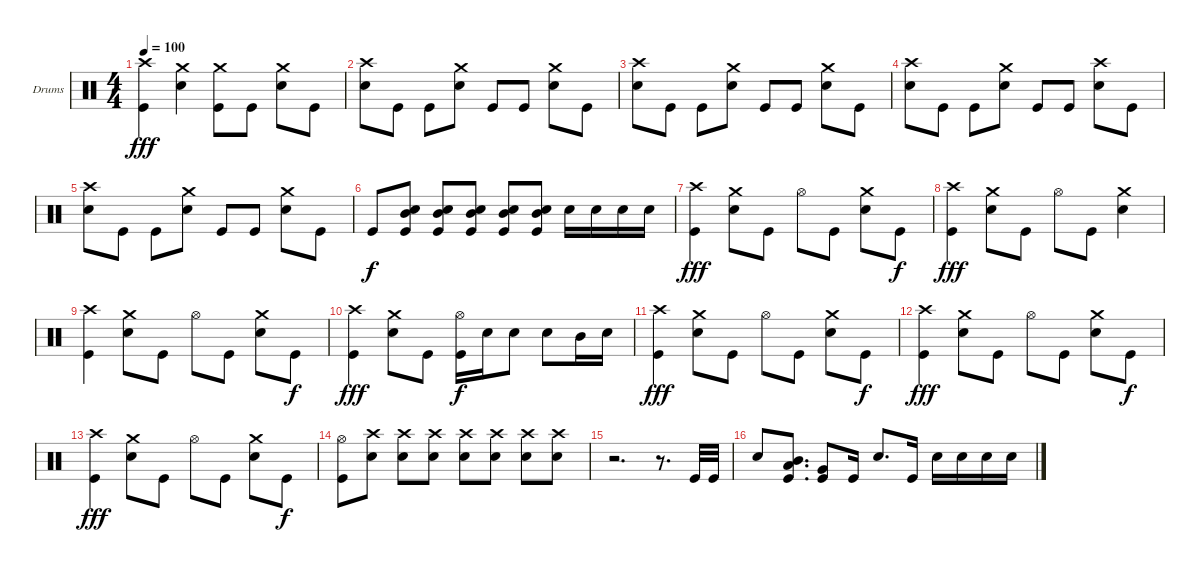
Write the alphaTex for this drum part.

\defaultSystemsLayout 4
\bracketExtendMode groupsimilarinstruments
\firstSystemTrackNameOrientation horizontal
\otherSystemsTrackNameOrientation horizontal
\track ("Drumkit" "Drums") {instrument percussion}
\staff {score}
\articulation defaults
\ts (4 4)
\tempo 100
\clef neutral
\scale
0.333333
\ks c
("Crash high (hit)" "Kick (hit)").4{dy fff} ("Crash medium (hit)" "Snare (hit) 2").4 ("Crash medium (hit)" "Kick (hit)").8 "Kick (hit)".8 ("Crash medium (hit)" "Snare (hit) 2").8 "Kick (hit)".8 |
\scale
0.333333 ("Crash high (hit)" "Snare (hit) 2").8 "Kick (hit)".8 "Kick (hit)".8 ("Crash medium (hit)" "Snare (hit) 2").8 "Kick (hit)".8 "Kick (hit)".8 ("Crash medium (hit)" "Snare (hit) 2").8 "Kick (hit)".8 |
\scale
0.333333 ("Crash high (hit)" "Snare (hit) 2").8 "Kick (hit)".8 "Kick (hit)".8 ("Crash medium (hit)" "Snare (hit) 2").8 "Kick (hit)".8 "Kick (hit)".8 ("Crash medium (hit)" "Snare (hit) 2").8 "Kick (hit)".8 |
("Crash high (hit)" "Snare (hit) 2").8 "Kick (hit)".8 "Kick (hit)".8 ("Crash medium (hit)" "Snare (hit) 2").8 "Kick (hit)".8 "Kick (hit)".8 ("Crash high (hit)" "Snare (hit) 2").8 "Kick (hit)".8 |
("Crash high (hit)" "Snare (hit) 2").8 "Kick (hit)".8 "Kick (hit)".8 ("Crash medium (hit)" "Snare (hit) 2").8 "Kick (hit)".8 "Kick (hit)".8 ("Crash medium (hit)" "Snare (hit) 2").8 "Kick (hit)".8 |
"Kick (hit)".8{dy f} ("Mid Tom (hit)" "Snare (hit) 2" "Kick (hit)").8 ("Mid Tom (hit)" "Snare (hit) 2" "Kick (hit)").8 ("Mid Tom (hit)" "Snare (hit) 2" "Kick (hit)").8 ("Mid Tom (hit)" "Snare (hit) 2" "Kick (hit)").8 ("Mid Tom (hit)" "Snare (hit) 2" "Kick (hit)").8 "Snare (hit) 2".16 "Snare (hit) 2".16 "Snare (hit) 2".16 "Snare (hit) 2".16 |
("Crash high (hit)" "Kick (hit)").4{dy fff} ("Crash medium (hit)" "Snare (hit) 2").8 "Kick (hit)".8 "Hi-Hat (open)".8 "Kick (hit)".8 ("Crash medium (hit)" "Snare (hit) 2").8 "Kick (hit)".8{dy f} |
("Crash high (hit)" "Kick (hit)").4{dy fff} ("Crash medium (hit)" "Snare (hit) 2").8 "Kick (hit)".8 "Hi-Hat (open)".8 "Kick (hit)".8 ("Crash medium (hit)" "Snare (hit) 2").4 |
("Crash high (hit)" "Kick (hit)").4 ("Crash medium (hit)" "Snare (hit) 2").8 "Kick (hit)".8 "Hi-Hat (open)".8 "Kick (hit)".8 ("Crash medium (hit)" "Snare (hit) 2").8 "Kick (hit)".8{dy f} |
("Crash high (hit)" "Kick (hit)").4{dy fff} ("Crash medium (hit)" "Snare (hit) 2").8 "Kick (hit)".8 ("Hi-Hat (open)" "Kick (hit)").16{dy f} "Snare (hit) 2".16 "Snare (hit) 2".8 "Snare (hit) 2".8 "Mid Tom (hit)".16 "Snare (hit) 2".16 |
("Crash high (hit)" "Kick (hit)").4{dy fff} ("Crash medium (hit)" "Snare (hit) 2").8 "Kick (hit)".8 "Hi-Hat (open)".8 "Kick (hit)".8 ("Crash medium (hit)" "Snare (hit) 2").8 "Kick (hit)".8{dy f} |
("Crash high (hit)" "Kick (hit)").4{dy fff} ("Crash medium (hit)" "Snare (hit) 2").8 "Kick (hit)".8 "Hi-Hat (open)".8 "Kick (hit)".8 ("Crash medium (hit)" "Snare (hit) 2").8 "Kick (hit)".8{dy f} |
("Crash high (hit)" "Kick (hit)").4{dy fff} ("Crash medium (hit)" "Snare (hit) 2").8 "Kick (hit)".8 "Hi-Hat (open)".8 "Kick (hit)".8 ("Crash medium (hit)" "Snare (hit) 2").8 "Kick (hit)".8{dy f} |
("Hi-Hat (open)" "Kick (hit)").8 ("Crash high (hit)" "Snare (hit) 2").8 ("Crash high (hit)" "Snare (hit) 2").8 ("Crash high (hit)" "Snare (hit) 2").8 ("Crash high (hit)" "Snare (hit) 2").8 ("Crash high (hit)" "Snare (hit) 2").8 ("Crash high (hit)" "Snare (hit) 2").8 ("Crash high (hit)" "Snare (hit) 2").8 |
r.2{d} r.8{d} "Kick (hit)".32 "Kick (hit)".32 |
"Snare (hit) 2".8 ("Mid Tom (hit)" "Low Tom (hit)" "Kick (hit)").8{d} ("Very Low Tom (hit)" "Kick (hit)").8 "Kick (hit)".16 "Snare (hit) 2".8{d} "Kick (hit)".16 "Snare (hit) 2".16 "Snare (hit) 2".16 "Snare (hit) 2".16 "Snare (hit) 2".16
